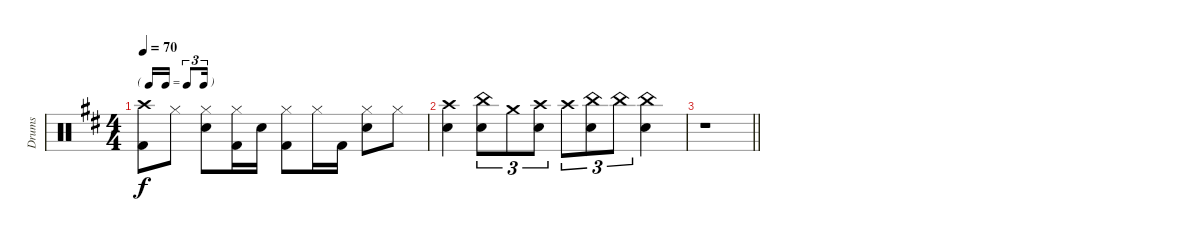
\track ("Drums" "Drums") {instrument percussion}
\staff {score}
\articulation defaults
\ts (4 4)
\tf triplet16th
\tempo 70
\clef neutral
\ks bminor
("Crash high (hit)" "Kick (hit) 2").8{dy f} "Hi-Hat (closed)".8 ("Hi-Hat (closed)" "Snare (hit) 2").8 ("Hi-Hat (closed)" "Kick (hit) 2").16 "Snare (hit) 2".16 ("Hi-Hat (closed)" "Kick (hit) 2").8 "Hi-Hat (closed)".16 "Kick (hit) 2".16 ("Hi-Hat (closed)" "Snare (hit) 2").8 "Hi-Hat (closed)".8 |
("Crash high (hit)" "Snare (hit) 2").4 ("China (hit)" "Snare (hit) 2").8{tu (3 2)} "Crash medium (hit)".8{tu (3 2)} ("Crash high (hit)" "Snare (hit) 2").8{tu (3 2)} "Crash high (hit)".8{tu (3 2)} ("China (hit)" "Snare (hit) 2").8{tu (3 2)} "China (hit)".8{tu (3 2)} ("China (hit)" "Snare (hit) 2").4 |
\barLineRight lightlight
r.1
